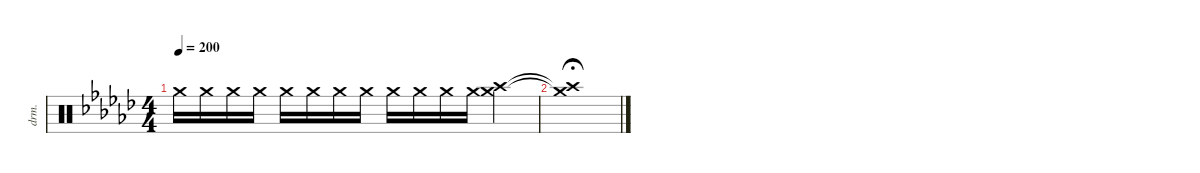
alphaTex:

\defaultSystemsLayout 8
\hideDynamics
\bracketExtendMode nobrackets
\otherSystemsTrackNameOrientation horizontal
\track ("Drums" "drm.") {defaultSystemsLayout 4 instrument percussion}
\staff {score}
\articulation defaults
\ts (4 4)
\tempo 200
\clef neutral
\ks ebminor "Crash medium (hit)"{acc forcenatural}.16{dy p beam Down} "Crash medium (hit)"{acc forcenatural}.16{dy mp beam Down} "Crash medium (hit)"{acc forcenatural}.16{beam Down} "Crash medium (hit)"{acc forcenatural}.16{beam Down} "Crash medium (hit)"{acc forcenatural}.16{beam Down} "Crash medium (hit)"{acc forcenatural}.16{dy mf beam Down} "Crash medium (hit)"{acc forcenatural}.16{beam Down} "Crash medium (hit)"{acc forcenatural}.16{beam Down} "Crash medium (hit)"{acc forcenatural}.16{beam Down} "Crash medium (hit)"{acc forcenatural}.16{dy f beam Down} "Crash medium (hit)"{acc forcenatural}.16{beam Down} "Crash medium (hit)"{acc forcenatural}.16{beam Down}
("Crash high (hit)"{acc forcenatural} "Crash medium (hit)"{acc forcenatural}).4{beam Down} |
\tempo (100 hide)
("Crash high (hit)"{t acc forcenatural} "Crash medium (hit)"{t acc forcenatural}).1{fermata (medium 1) beam Down}
